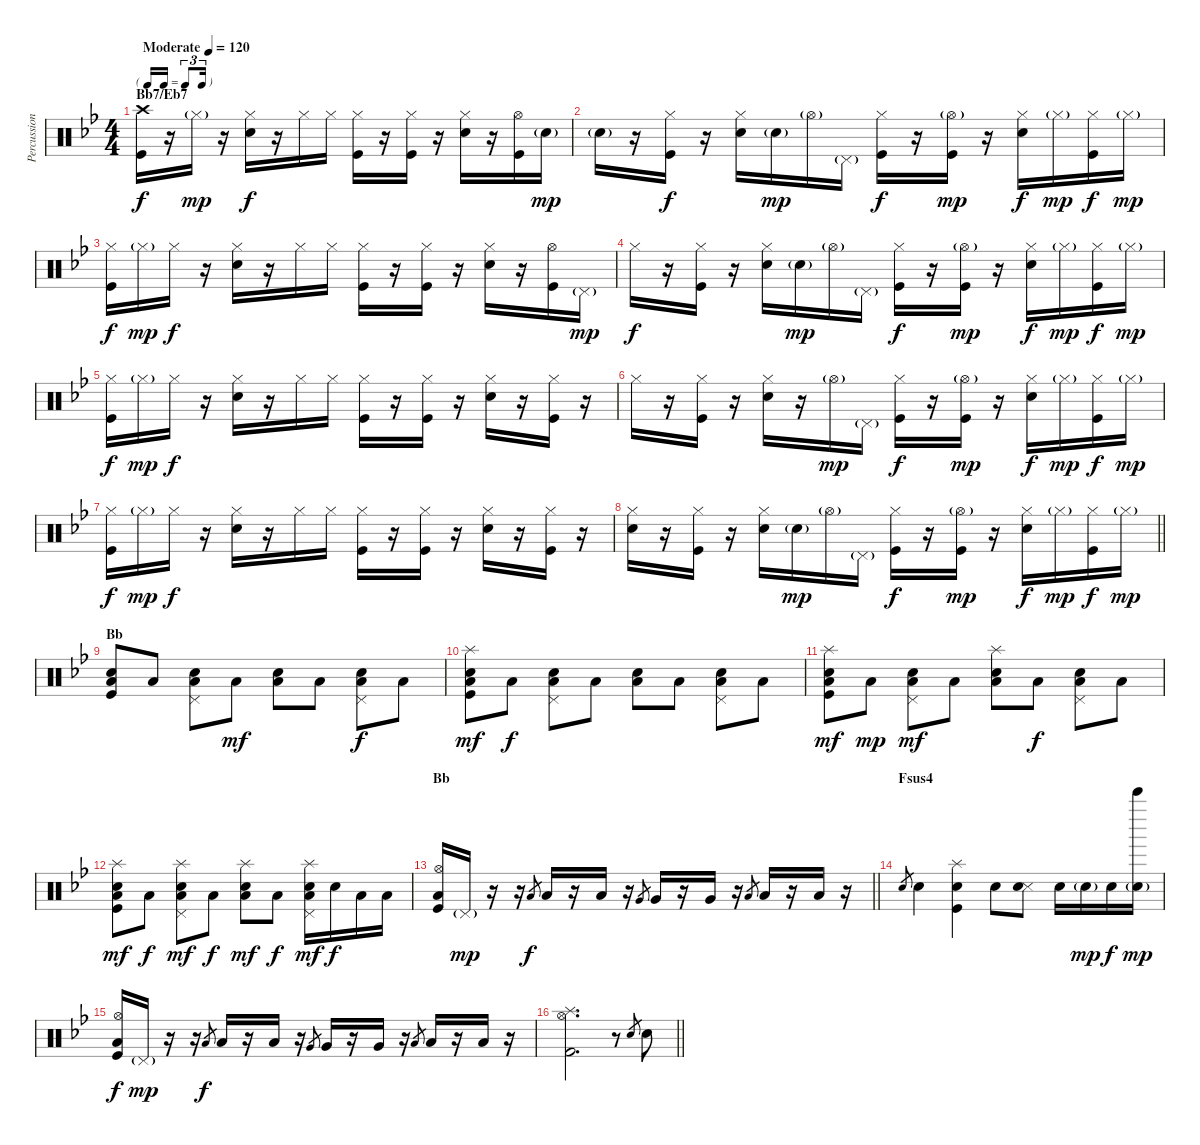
\track ("Percussion" "Percussion") {instrument percussion}
\staff {score}
\articulation defaults
\ts (4 4)
\tf triplet16th
\section ("" "Bb7/Eb7")
\tempo (120 "Moderate")
\clef neutral
\ks bb
("Crash high (hit)" "Kick (hit)").16{dy f} r.16 "Hi-Hat (closed)"{g}.16{dy mp} r.16 ("Hi-Hat (closed)" "Electric Snare (hit)").16{dy f} r.16 "Hi-Hat (closed)".16 "Hi-Hat (closed)".16 ("Hi-Hat (closed)" "Kick (hit)").16 r.16 ("Hi-Hat (closed)" "Kick (hit)").16 r.16 ("Hi-Hat (closed)" "Electric Snare (hit)").16 r.16 ("Hi-Hat (open)" "Kick (hit)").16 "Electric Snare (hit)"{g}.16{dy mp} |
"Electric Snare (hit)"{g}.16 r.16 ("Hi-Hat (closed)" "Kick (hit)").16{dy f} r.16 ("Hi-Hat (closed)" "Electric Snare (hit)").16 "Electric Snare (hit)"{g}.16{dy mp} "Hi-Hat (open)"{g}.16 "Pedal Hi-Hat (hit)"{g}.16 ("Hi-Hat (closed)" "Kick (hit)").16{dy f} r.16 ("Hi-Hat (open)"{g} "Kick (hit)").16{dy mp} r.16 ("Hi-Hat (closed)" "Electric Snare (hit)").16{dy f} "Hi-Hat (closed)"{g}.16{dy mp} ("Hi-Hat (closed)" "Kick (hit)").16{dy f} "Hi-Hat (closed)"{g}.16{dy mp} |
("Hi-Hat (closed)" "Kick (hit)").16{dy f} "Hi-Hat (closed)"{g}.16{dy mp} "Hi-Hat (closed)".16{dy f} r.16 ("Hi-Hat (closed)" "Electric Snare (hit)").16 r.16 "Hi-Hat (closed)".16 "Hi-Hat (closed)".16 ("Hi-Hat (closed)" "Kick (hit)").16 r.16 ("Hi-Hat (closed)" "Kick (hit)").16 r.16 ("Hi-Hat (closed)" "Electric Snare (hit)").16 r.16 ("Hi-Hat (open)" "Kick (hit)").16 "Pedal Hi-Hat (hit)"{g}.16{dy mp} |
"Hi-Hat (closed)".16{dy f} r.16 ("Hi-Hat (closed)" "Kick (hit)").16 r.16 ("Hi-Hat (closed)" "Electric Snare (hit)").16 "Electric Snare (hit)"{g}.16{dy mp} "Hi-Hat (open)"{g}.16 "Pedal Hi-Hat (hit)"{g}.16 ("Hi-Hat (closed)" "Kick (hit)").16{dy f} r.16 ("Hi-Hat (open)"{g} "Kick (hit)").16{dy mp} r.16 ("Hi-Hat (closed)" "Electric Snare (hit)").16{dy f} "Hi-Hat (closed)"{g}.16{dy mp} ("Hi-Hat (closed)" "Kick (hit)").16{dy f} "Hi-Hat (closed)"{g}.16{dy mp} |
("Hi-Hat (closed)" "Kick (hit)").16{dy f} "Hi-Hat (closed)"{g}.16{dy mp} "Hi-Hat (closed)".16{dy f} r.16 ("Hi-Hat (closed)" "Electric Snare (hit)").16 r.16 "Hi-Hat (closed)".16 "Hi-Hat (closed)".16 ("Hi-Hat (closed)" "Kick (hit)").16 r.16 ("Hi-Hat (closed)" "Kick (hit)").16 r.16 ("Hi-Hat (closed)" "Electric Snare (hit)").16 r.16 ("Hi-Hat (closed)" "Kick (hit)").16 r.16 |
"Hi-Hat (closed)".16 r.16 ("Hi-Hat (closed)" "Kick (hit)").16 r.16 ("Hi-Hat (closed)" "Electric Snare (hit)").16 r.16 "Hi-Hat (open)"{g}.16{dy mp} "Pedal Hi-Hat (hit)"{g}.16 ("Hi-Hat (closed)" "Kick (hit)").16{dy f} r.16 ("Hi-Hat (open)"{g} "Kick (hit)").16{dy mp} r.16 ("Hi-Hat (closed)" "Electric Snare (hit)").16{dy f} "Hi-Hat (closed)"{g}.16{dy mp} ("Hi-Hat (closed)" "Kick (hit)").16{dy f} "Hi-Hat (closed)"{g}.16{dy mp} |
("Hi-Hat (closed)" "Kick (hit)").16{dy f} "Hi-Hat (closed)"{g}.16{dy mp} "Hi-Hat (closed)".16{dy f} r.16 ("Hi-Hat (closed)" "Electric Snare (hit)").16 r.16 "Hi-Hat (closed)".16 "Hi-Hat (closed)".16 ("Hi-Hat (closed)" "Kick (hit)").16 r.16 ("Hi-Hat (closed)" "Kick (hit)").16 r.16 ("Hi-Hat (closed)" "Electric Snare (hit)").16 r.16 ("Hi-Hat (closed)" "Kick (hit)").16 r.16 |
\barLineRight lightlight
("Hi-Hat (closed)" "Electric Snare (hit)").16 r.16 ("Hi-Hat (closed)" "Kick (hit)").16 r.16 ("Hi-Hat (closed)" "Electric Snare (hit)").16 "Electric Snare (hit)"{g}.16{dy mp} "Hi-Hat (open)"{g}.16 "Pedal Hi-Hat (hit)"{g}.16 ("Hi-Hat (closed)" "Kick (hit)").16{dy f} r.16 ("Hi-Hat (open)"{g} "Kick (hit)").16{dy mp} r.16 ("Hi-Hat (closed)" "Electric Snare (hit)").16{dy f} "Hi-Hat (closed)"{g}.16{dy mp} ("Hi-Hat (closed)" "Kick (hit)").16{dy f} "Hi-Hat (closed)"{g}.16{dy mp} |
\section ("" "Bb")
("Low Floor Tom (hit)" "Electric Snare (hit)" "Kick (hit)").8 "Low Floor Tom (hit)".8 ("Low Floor Tom (hit)" "Electric Snare (hit)" "Pedal Hi-Hat (hit)").8 "Low Floor Tom (hit)".8{dy mf} ("Low Floor Tom (hit)" "Electric Snare (hit)").8 "Low Floor Tom (hit)".8 ("Low Floor Tom (hit)" "Electric Snare (hit)" "Pedal Hi-Hat (hit)").8{dy f} "Low Floor Tom (hit)".8 |
("Low Floor Tom (hit)" "Splash (hit)" "Electric Snare (hit)" "Kick (hit)").8{dy mf} "Low Floor Tom (hit)".8{dy f} ("Low Floor Tom (hit)" "Electric Snare (hit)" "Pedal Hi-Hat (hit)").8 "Low Floor Tom (hit)".8 ("Low Floor Tom (hit)" "Electric Snare (hit)").8 "Low Floor Tom (hit)".8 ("Low Floor Tom (hit)" "Electric Snare (hit)" "Pedal Hi-Hat (hit)").8 "Low Floor Tom (hit)".8 |
("Low Floor Tom (hit)" "Splash (hit)" "Electric Snare (hit)" "Kick (hit)").8{dy mf} "Low Floor Tom (hit)".8{dy mp} ("Low Floor Tom (hit)" "Electric Snare (hit)" "Pedal Hi-Hat (hit)").8{dy mf} "Low Floor Tom (hit)".8 ("Low Floor Tom (hit)" "Splash (hit)" "Electric Snare (hit)").8 "Low Floor Tom (hit)".8{dy f} ("Low Floor Tom (hit)" "Electric Snare (hit)" "Pedal Hi-Hat (hit)").8 "Low Floor Tom (hit)".8 |
("Low Floor Tom (hit)" "Splash (hit)" "Electric Snare (hit)" "Kick (hit)").8{dy mf} "Low Floor Tom (hit)".8{dy f} ("Low Floor Tom (hit)" "Splash (hit)" "Electric Snare (hit)" "Pedal Hi-Hat (hit)").8{dy mf} "Low Floor Tom (hit)".8{dy f} ("Low Floor Tom (hit)" "Splash (hit)" "Electric Snare (hit)").8{dy mf} "Low Floor Tom (hit)".8{dy f} ("Low Floor Tom (hit)" "Splash (hit)" "Electric Snare (hit)" "Pedal Hi-Hat (hit)").16{dy mf} "Electric Snare (hit)".16{dy f} "Low Tom (hit)".16 "Low Tom (hit)".16 |
\section ("" "Bb")
\barLineRight lightlight
("Hi-Hat (open)" "Low Floor Tom (hit)" "Kick (hit)").16 "Pedal Hi-Hat (hit)"{g}.16{dy mp} r.16 r.16 "Low Floor Tom (hit)".8{gr dy f} "Low Floor Tom (hit)".16 r.16 "Low Floor Tom (hit)".16 r.16 "Very Low Tom (hit)".8{gr} "Very Low Tom (hit)".16 r.16 "Very Low Tom (hit)".16 r.16 "Low Tom (hit)".8{gr} "Low Tom (hit)".16 r.16 "Low Tom (hit)".16 r.16 |
\section ("" "Fsus4")
"Electric Snare (hit)".8{gr} "Electric Snare (hit)".4 ("Splash (hit)" "Electric Snare (hit)" "Kick (hit)").4 "Electric Snare (hit)".8 ("Snare (side stick) 3" "Electric Snare (hit)").8 "Electric Snare (hit)".16 "Electric Snare (hit)"{g}.16{dy mp} "Electric Snare (hit)".16{dy f} ("Electric Snare (hit)"{g} "Bell Tree (hit)").16{dy mp} |
("Hi-Hat (open)" "Low Floor Tom (hit)" "Kick (hit)").16{dy f} "Pedal Hi-Hat (hit)"{g}.16{dy mp} r.16 r.16 "Low Floor Tom (hit)".8{gr dy f} "Low Floor Tom (hit)".16 r.16 "Low Floor Tom (hit)".16 r.16 "Very Low Tom (hit)".8{gr} "Very Low Tom (hit)".16 r.16 "Very Low Tom (hit)".16 r.16 "Low Tom (hit)".8{gr} "Low Tom (hit)".16 r.16 "Low Tom (hit)".16 r.16 |
\barLineRight lightlight
("Splash (hit)" "Hi-Hat (open)" "Kick (hit) 2").2{d} r.8 "Electric Snare (hit)".8{gr} "Electric Snare (hit)".8
